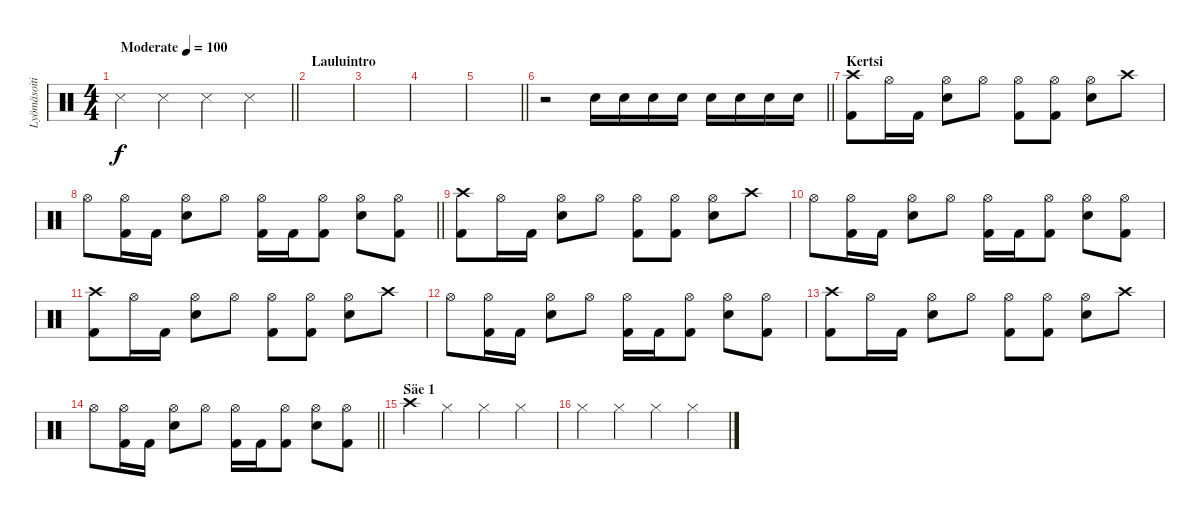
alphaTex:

\track ("Lyömäsoitin" "Lyömäsoiti") {instrument percussion}
\staff {score}
\articulation defaults
\ts (4 4)
\tempo (100 "Moderate")
\clef neutral
\barLineRight lightlight
\ks c "Snare (side stick) 3".4{dy f} "Snare (side stick) 3".4 "Snare (side stick) 3".4 "Snare (side stick) 3".4
|
\section ("" "Lauluintro")
|
|
|
\barLineRight lightlight
|
\barLineRight lightlight
r.2 "Snare (hit) 2".16 "Snare (hit) 2".16 "Snare (hit) 2".16 "Snare (hit) 2".16 "Snare (hit) 2".16 "Snare (hit) 2".16 "Snare (hit) 2".16 "Snare (hit) 2".16 |
\section ("" "Kertsi")
("Crash high (hit)" "Kick (hit) 2").8 "Hi-Hat (open)".16 "Kick (hit) 2".16 ("Hi-Hat (open)" "Snare (hit) 2").8 "Hi-Hat (open)".8 ("Hi-Hat (open)" "Kick (hit) 2").8 ("Hi-Hat (open)" "Kick (hit) 2").8 ("Hi-Hat (open)" "Snare (hit) 2").8 "Crash high (hit)".8 |
\barLineRight lightlight "Hi-Hat (open)".8
("Hi-Hat (open)" "Kick (hit) 2").16 "Kick (hit) 2".16 ("Hi-Hat (open)" "Snare (hit) 2").8 "Hi-Hat (open)".8 ("Hi-Hat (open)" "Kick (hit) 2").16 "Kick (hit) 2".16 ("Hi-Hat (open)" "Kick (hit) 2").8 ("Hi-Hat (open)" "Snare (hit) 2").8 ("Hi-Hat (open)" "Kick (hit) 2").8 |
("Crash high (hit)" "Kick (hit) 2").8 "Hi-Hat (open)".16 "Kick (hit) 2".16 ("Hi-Hat (open)" "Snare (hit) 2").8 "Hi-Hat (open)".8 ("Hi-Hat (open)" "Kick (hit) 2").8 ("Hi-Hat (open)" "Kick (hit) 2").8 ("Hi-Hat (open)" "Snare (hit) 2").8 "Crash high (hit)".8 |
"Hi-Hat (open)".8 ("Hi-Hat (open)" "Kick (hit) 2").16 "Kick (hit) 2".16 ("Hi-Hat (open)" "Snare (hit) 2").8 "Hi-Hat (open)".8 ("Hi-Hat (open)" "Kick (hit) 2").16 "Kick (hit) 2".16 ("Hi-Hat (open)" "Kick (hit) 2").8 ("Hi-Hat (open)" "Snare (hit) 2").8 ("Hi-Hat (open)" "Kick (hit) 2").8 |
("Crash high (hit)" "Kick (hit) 2").8 "Hi-Hat (open)".16 "Kick (hit) 2".16 ("Hi-Hat (open)" "Snare (hit) 2").8 "Hi-Hat (open)".8 ("Hi-Hat (open)" "Kick (hit) 2").8 ("Hi-Hat (open)" "Kick (hit) 2").8 ("Hi-Hat (open)" "Snare (hit) 2").8 "Crash high (hit)".8 |
"Hi-Hat (open)".8 ("Hi-Hat (open)" "Kick (hit) 2").16 "Kick (hit) 2".16 ("Hi-Hat (open)" "Snare (hit) 2").8 "Hi-Hat (open)".8 ("Hi-Hat (open)" "Kick (hit) 2").16 "Kick (hit) 2".16 ("Hi-Hat (open)" "Kick (hit) 2").8 ("Hi-Hat (open)" "Snare (hit) 2").8 ("Hi-Hat (open)" "Kick (hit) 2").8 |
("Crash high (hit)" "Kick (hit) 2").8 "Hi-Hat (open)".16 "Kick (hit) 2".16 ("Hi-Hat (open)" "Snare (hit) 2").8 "Hi-Hat (open)".8 ("Hi-Hat (open)" "Kick (hit) 2").8 ("Hi-Hat (open)" "Kick (hit) 2").8 ("Hi-Hat (open)" "Snare (hit) 2").8 "Crash high (hit)".8 |
\barLineRight lightlight "Hi-Hat (open)".8
("Hi-Hat (open)" "Kick (hit) 2").16 "Kick (hit) 2".16 ("Hi-Hat (open)" "Snare (hit) 2").8 "Hi-Hat (open)".8 ("Hi-Hat (open)" "Kick (hit) 2").16 "Kick (hit) 2".16 ("Hi-Hat (open)" "Kick (hit) 2").8 ("Hi-Hat (open)" "Snare (hit) 2").8 ("Hi-Hat (open)" "Kick (hit) 2").8 |
\section ("" "Säe 1")
"Crash high (hit)".4 "Hi-Hat (closed)".4 "Hi-Hat (closed)".4 "Hi-Hat (closed)".4 |
"Hi-Hat (closed)".4 "Hi-Hat (closed)".4 "Hi-Hat (closed)".4 "Hi-Hat (closed)".4
